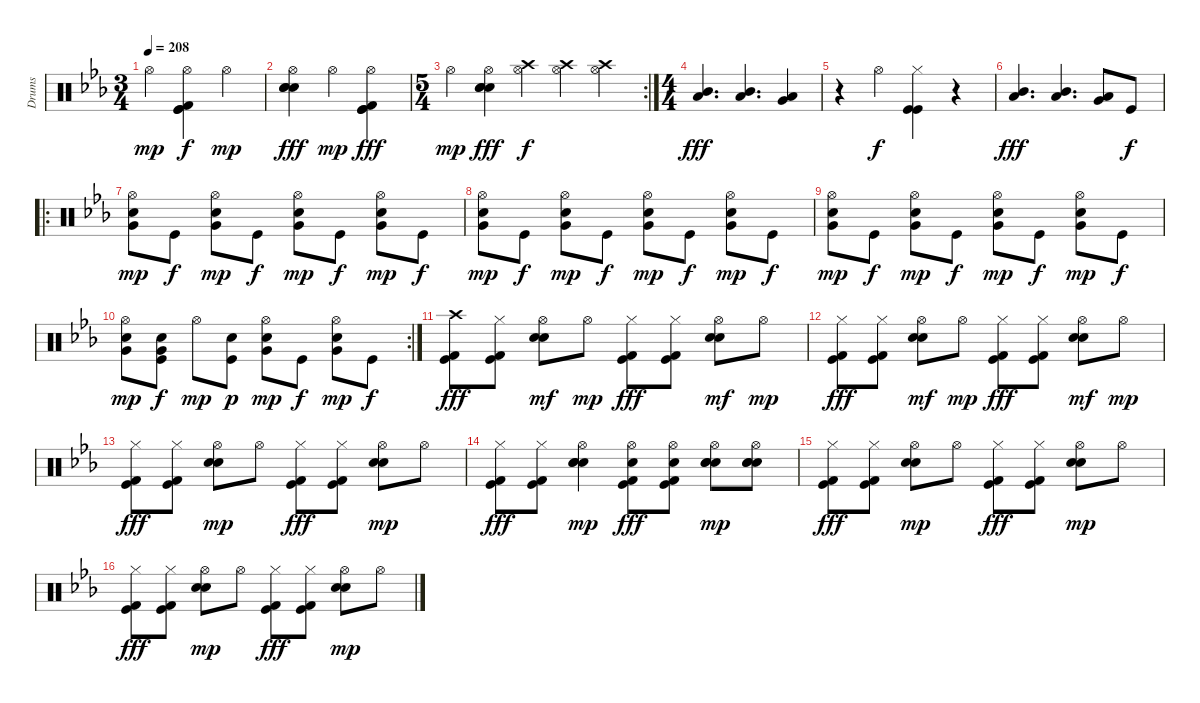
\track ("Drums" "Drums") {instrument percussion}
\staff {score}
\articulation defaults
\ts (3 4)
\tempo 208
\clef neutral
\ks cminor "Hi-Hat (open)".4{dy mp}
("Kick (hit) 2" "Kick (hit)" "Kick (hit)" "Hi-Hat (open)").4{dy f} "Hi-Hat (open)".4{dy mp} |
("Snare (hit) 2" "Electric Snare (hit)" "Electric Snare (hit)" "Hi-Hat (open)").4{dy fff} "Hi-Hat (open)".4{dy mp} ("Kick (hit) 2" "Kick (hit)" "Kick (hit)" "Hi-Hat (open)").4{dy fff} |
\rc 2
\ts (5 4)
"Hi-Hat (open)".4{dy mp} ("Snare (hit) 2" "Electric Snare (hit)" "Electric Snare (hit)" "Hi-Hat (open)").4{dy fff} ("Hi-Hat (open)" "Crash high (hit)").4{dy f} ("Hi-Hat (open)" "Crash high (hit)").4 ("Hi-Hat (open)" "Crash high (hit)").4 |
\ts (4 4)
("Mid Tom (hit)" "Low Floor Tom (hit)").4{d dy fff} ("Mid Tom (hit)" "Low Floor Tom (hit)").4{d} ("Very Low Tom (hit)" "Low Floor Tom (hit)").4 |
r.4 "Hi-Hat (open)".4{dy f} ("Hi-Hat (closed)" "Kick (hit)" "Kick (hit)").4 r.4 |
("Mid Tom (hit)" "Low Floor Tom (hit)").4{d dy fff} ("Mid Tom (hit)" "Low Floor Tom (hit)").4{d} ("Very Low Tom (hit)" "Low Floor Tom (hit)").8 "Kick (hit)".8{dy f} |
\ro
("Hi-Hat (open)" "Very Low Tom (hit)" "Electric Snare (hit)").8{dy mp} "Kick (hit)".8{dy f} ("Hi-Hat (open)" "Very Low Tom (hit)" "Electric Snare (hit)").8{dy mp} "Kick (hit)".8{dy f} ("Hi-Hat (open)" "Very Low Tom (hit)" "Electric Snare (hit)").8{dy mp} "Kick (hit)".8{dy f} ("Hi-Hat (open)" "Very Low Tom (hit)" "Electric Snare (hit)").8{dy mp} "Kick (hit)".8{dy f} |
("Hi-Hat (open)" "Very Low Tom (hit)" "Electric Snare (hit)").8{dy mp} "Kick (hit)".8{dy f} ("Hi-Hat (open)" "Very Low Tom (hit)" "Electric Snare (hit)").8{dy mp} "Kick (hit)".8{dy f} ("Hi-Hat (open)" "Very Low Tom (hit)" "Electric Snare (hit)").8{dy mp} "Kick (hit)".8{dy f} ("Hi-Hat (open)" "Very Low Tom (hit)" "Electric Snare (hit)").8{dy mp} "Kick (hit)".8{dy f} |
("Hi-Hat (open)" "Very Low Tom (hit)" "Electric Snare (hit)").8{dy mp} "Kick (hit)".8{dy f} ("Hi-Hat (open)" "Very Low Tom (hit)" "Electric Snare (hit)").8{dy mp} "Kick (hit)".8{dy f} ("Hi-Hat (open)" "Very Low Tom (hit)" "Electric Snare (hit)").8{dy mp} "Kick (hit)".8{dy f} ("Hi-Hat (open)" "Very Low Tom (hit)" "Electric Snare (hit)").8{dy mp} "Kick (hit)".8{dy f} |
\rc 2
("Hi-Hat (open)" "Very Low Tom (hit)" "Electric Snare (hit)").8{dy mp} ("Kick (hit)" "Very Low Tom (hit)" "Electric Snare (hit)").8{dy f} "Hi-Hat (open)".8{dy mp} ("Electric Snare (hit)" "Kick (hit)").8{dy p} ("Hi-Hat (open)" "Very Low Tom (hit)" "Electric Snare (hit)").8{dy mp} "Kick (hit)".8{dy f} ("Hi-Hat (open)" "Very Low Tom (hit)" "Electric Snare (hit)").8{dy mp} "Kick (hit)".8{dy f} |
("Crash high (hit)" "Kick (hit) 2" "Kick (hit)").8{dy fff} ("Hi-Hat (closed)" "Kick (hit) 2" "Kick (hit)").8 ("Hi-Hat (open)" "Snare (hit) 2" "Electric Snare (hit)").8{dy mf} "Hi-Hat (open)".8{dy mp} ("Hi-Hat (closed)" "Kick (hit) 2" "Kick (hit)").8{dy fff} ("Hi-Hat (closed)" "Kick (hit) 2" "Kick (hit)").8 ("Hi-Hat (open)" "Snare (hit) 2" "Electric Snare (hit)").8{dy mf} "Hi-Hat (open)".8{dy mp} |
("Hi-Hat (closed)" "Kick (hit) 2" "Kick (hit)").8{dy fff} ("Hi-Hat (closed)" "Kick (hit) 2" "Kick (hit)").8 ("Hi-Hat (open)" "Snare (hit) 2" "Electric Snare (hit)").8{dy mf} "Hi-Hat (open)".8{dy mp} ("Hi-Hat (closed)" "Kick (hit) 2" "Kick (hit)").8{dy fff} ("Hi-Hat (closed)" "Kick (hit) 2" "Kick (hit)").8 ("Hi-Hat (open)" "Snare (hit) 2" "Electric Snare (hit)").8{dy mf} "Hi-Hat (open)".8{dy mp} |
("Hi-Hat (closed)" "Kick (hit) 2" "Kick (hit)").8{dy fff} ("Hi-Hat (closed)" "Kick (hit) 2" "Kick (hit)").8 ("Hi-Hat (open)" "Snare (hit) 2" "Electric Snare (hit)").8{dy mp} "Hi-Hat (open)".8 ("Hi-Hat (closed)" "Kick (hit) 2" "Kick (hit)").8{dy fff} ("Hi-Hat (closed)" "Kick (hit) 2" "Kick (hit)").8 ("Hi-Hat (open)" "Snare (hit) 2" "Electric Snare (hit)").8{dy mp} "Hi-Hat (open)".8 |
("Hi-Hat (closed)" "Kick (hit) 2" "Kick (hit)").8{dy fff} ("Hi-Hat (closed)" "Kick (hit) 2" "Kick (hit)").8 ("Hi-Hat (open)" "Snare (hit) 2" "Electric Snare (hit)" "Electric Snare (hit)").4{dy mp} ("Hi-Hat (open)" "Kick (hit) 2" "Kick (hit)" "Electric Snare (hit)").8{dy fff} ("Hi-Hat (open)" "Kick (hit) 2" "Kick (hit)" "Electric Snare (hit)").8 ("Hi-Hat (open)" "Snare (hit) 2" "Electric Snare (hit)" "Electric Snare (hit)").8{dy mp} ("Hi-Hat (open)" "Snare (hit) 2" "Electric Snare (hit)" "Electric Snare (hit)").8 |
("Hi-Hat (closed)" "Kick (hit) 2" "Kick (hit)").8{dy fff} ("Hi-Hat (closed)" "Kick (hit) 2" "Kick (hit)").8 ("Hi-Hat (open)" "Snare (hit) 2" "Electric Snare (hit)").8{dy mp} "Hi-Hat (open)".8 ("Hi-Hat (closed)" "Kick (hit) 2" "Kick (hit)").8{dy fff} ("Hi-Hat (closed)" "Kick (hit) 2" "Kick (hit)").8 ("Hi-Hat (open)" "Snare (hit) 2" "Electric Snare (hit)").8{dy mp} "Hi-Hat (open)".8 |
("Hi-Hat (closed)" "Kick (hit) 2" "Kick (hit)").8{dy fff} ("Hi-Hat (closed)" "Kick (hit) 2" "Kick (hit)").8 ("Hi-Hat (open)" "Snare (hit) 2" "Electric Snare (hit)").8{dy mp} "Hi-Hat (open)".8 ("Hi-Hat (closed)" "Kick (hit) 2" "Kick (hit)").8{dy fff} ("Hi-Hat (closed)" "Kick (hit) 2" "Kick (hit)").8 ("Hi-Hat (open)" "Snare (hit) 2" "Electric Snare (hit)").8{dy mp} "Hi-Hat (open)".8
